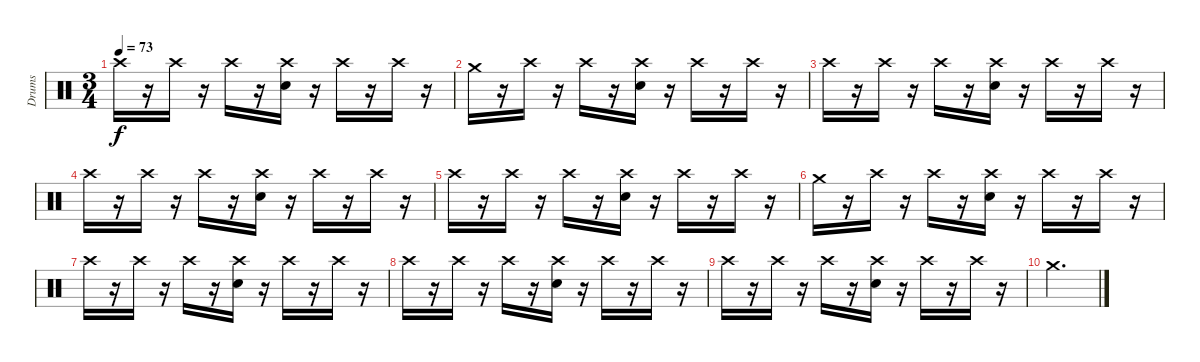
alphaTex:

\track ("Drums" "Drums") {instrument percussion}
\staff {score}
\articulation defaults
\ts (3 4)
\tempo 73
\clef neutral
\ks c "Crash high (hit)".16{dy f}
r.16 "Crash high (hit)".16 r.16 "Crash high (hit)".16 r.16 ("Crash high (hit)" "Electric Snare (hit)").16 r.16 "Crash high (hit)".16 r.16 "Crash high (hit)".16 r.16 |
"Crash medium (hit)".16 r.16 "Crash high (hit)".16 r.16 "Crash high (hit)".16 r.16 ("Crash high (hit)" "Electric Snare (hit)").16 r.16 "Crash high (hit)".16 r.16 "Crash high (hit)".16 r.16 |
"Crash high (hit)".16 r.16 "Crash high (hit)".16 r.16 "Crash high (hit)".16 r.16 ("Crash high (hit)" "Electric Snare (hit)").16 r.16 "Crash high (hit)".16 r.16 "Crash high (hit)".16 r.16 |
"Crash high (hit)".16 r.16 "Crash high (hit)".16 r.16 "Crash high (hit)".16 r.16 ("Crash high (hit)" "Electric Snare (hit)").16 r.16 "Crash high (hit)".16 r.16 "Crash high (hit)".16 r.16 |
"Crash high (hit)".16 r.16 "Crash high (hit)".16 r.16 "Crash high (hit)".16 r.16 ("Crash high (hit)" "Electric Snare (hit)").16 r.16 "Crash high (hit)".16 r.16 "Crash high (hit)".16 r.16 |
"Crash medium (hit)".16 r.16 "Crash high (hit)".16 r.16 "Crash high (hit)".16 r.16 ("Crash high (hit)" "Electric Snare (hit)").16 r.16 "Crash high (hit)".16 r.16 "Crash high (hit)".16 r.16 |
"Crash high (hit)".16 r.16 "Crash high (hit)".16 r.16 "Crash high (hit)".16 r.16 ("Crash high (hit)" "Electric Snare (hit)").16 r.16 "Crash high (hit)".16 r.16 "Crash high (hit)".16 r.16 |
"Crash high (hit)".16 r.16 "Crash high (hit)".16 r.16 "Crash high (hit)".16 r.16 ("Crash high (hit)" "Electric Snare (hit)").16 r.16 "Crash high (hit)".16 r.16 "Crash high (hit)".16 r.16 |
"Crash high (hit)".16 r.16 "Crash high (hit)".16 r.16 "Crash high (hit)".16 r.16 ("Crash high (hit)" "Electric Snare (hit)").16 r.16 "Crash high (hit)".16 r.16 "Crash high (hit)".16 r.16 |
"Crash medium (hit)".2{d}
